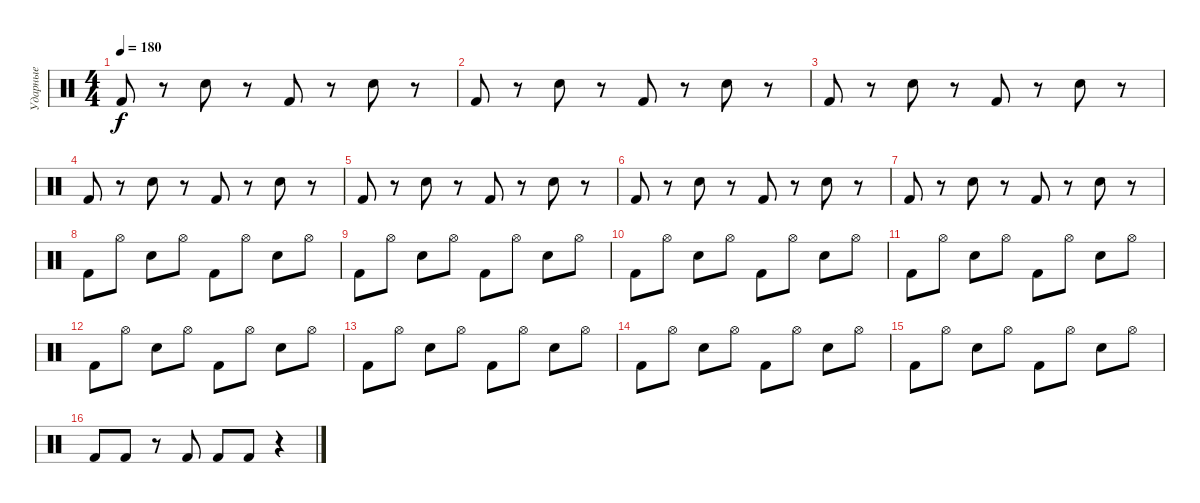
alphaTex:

\track ("Ударные" "Ударные") {instrument percussion}
\staff {score}
\articulation defaults
\ts (4 4)
\tempo 180
\clef neutral
\ks c "Kick (hit) 2".8{dy f}
r.8 "Electric Snare (hit)".8 r.8 "Kick (hit) 2".8 r.8 "Electric Snare (hit)".8 r.8 |
"Kick (hit) 2".8 r.8 "Electric Snare (hit)".8 r.8 "Kick (hit) 2".8 r.8 "Electric Snare (hit)".8 r.8 |
"Kick (hit) 2".8 r.8 "Electric Snare (hit)".8 r.8 "Kick (hit) 2".8 r.8 "Electric Snare (hit)".8 r.8 |
"Kick (hit) 2".8 r.8 "Electric Snare (hit)".8 r.8 "Kick (hit) 2".8 r.8 "Electric Snare (hit)".8 r.8 |
"Kick (hit) 2".8 r.8 "Electric Snare (hit)".8 r.8 "Kick (hit) 2".8 r.8 "Electric Snare (hit)".8 r.8 |
"Kick (hit) 2".8 r.8 "Electric Snare (hit)".8 r.8 "Kick (hit) 2".8 r.8 "Electric Snare (hit)".8 r.8 |
"Kick (hit) 2".8 r.8 "Electric Snare (hit)".8 r.8 "Kick (hit) 2".8 r.8 "Electric Snare (hit)".8 r.8 |
"Kick (hit) 2".8 "Hi-Hat (open)".8 "Electric Snare (hit)".8 "Hi-Hat (open)".8 "Kick (hit) 2".8 "Hi-Hat (open)".8 "Electric Snare (hit)".8 "Hi-Hat (open)".8 |
"Kick (hit) 2".8 "Hi-Hat (open)".8 "Electric Snare (hit)".8 "Hi-Hat (open)".8 "Kick (hit) 2".8 "Hi-Hat (open)".8 "Electric Snare (hit)".8 "Hi-Hat (open)".8 |
"Kick (hit) 2".8 "Hi-Hat (open)".8 "Electric Snare (hit)".8 "Hi-Hat (open)".8 "Kick (hit) 2".8 "Hi-Hat (open)".8 "Electric Snare (hit)".8 "Hi-Hat (open)".8 |
"Kick (hit) 2".8 "Hi-Hat (open)".8 "Electric Snare (hit)".8 "Hi-Hat (open)".8 "Kick (hit) 2".8 "Hi-Hat (open)".8 "Electric Snare (hit)".8 "Hi-Hat (open)".8 |
"Kick (hit) 2".8 "Hi-Hat (open)".8 "Electric Snare (hit)".8 "Hi-Hat (open)".8 "Kick (hit) 2".8 "Hi-Hat (open)".8 "Electric Snare (hit)".8 "Hi-Hat (open)".8 |
"Kick (hit) 2".8 "Hi-Hat (open)".8 "Electric Snare (hit)".8 "Hi-Hat (open)".8 "Kick (hit) 2".8 "Hi-Hat (open)".8 "Electric Snare (hit)".8 "Hi-Hat (open)".8 |
"Kick (hit) 2".8 "Hi-Hat (open)".8 "Electric Snare (hit)".8 "Hi-Hat (open)".8 "Kick (hit) 2".8 "Hi-Hat (open)".8 "Electric Snare (hit)".8 "Hi-Hat (open)".8 |
"Kick (hit) 2".8 "Hi-Hat (open)".8 "Electric Snare (hit)".8 "Hi-Hat (open)".8 "Kick (hit) 2".8 "Hi-Hat (open)".8 "Electric Snare (hit)".8 "Hi-Hat (open)".8 |
"Kick (hit) 2".8 "Kick (hit) 2".8 r.8 "Kick (hit) 2".8 "Kick (hit) 2".8 "Kick (hit) 2".8 r.4
